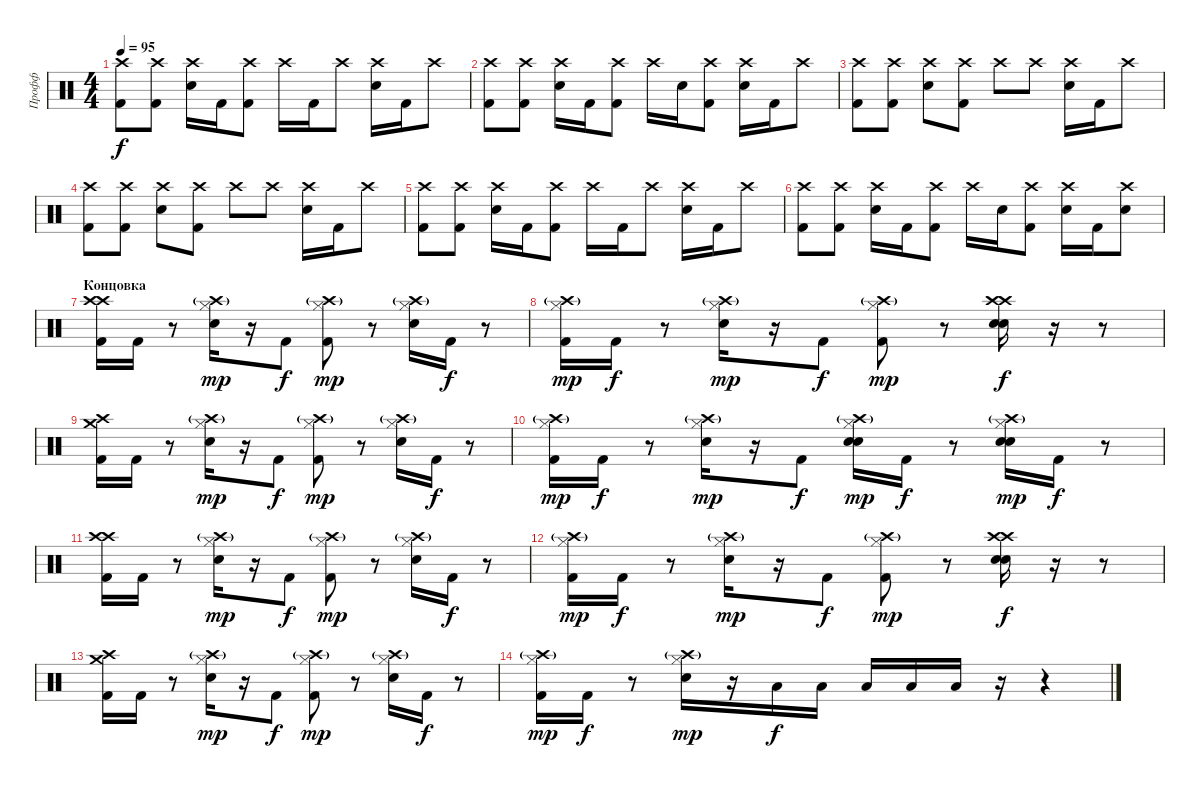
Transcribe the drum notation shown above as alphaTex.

\track ("Профф" "Профф") {instrument percussion}
\staff {score}
\articulation defaults
\ts (4 4)
\tempo 95
\clef neutral
\ks c
("Crash high (hit)" "Kick (hit) 2").8{dy f} ("Crash high (hit)" "Kick (hit) 2").8 ("Crash high (hit)" "Snare (hit) 2").16 "Kick (hit) 2".16 ("Crash high (hit)" "Kick (hit) 2").8 "Crash high (hit)".16 "Kick (hit) 2".16 "Crash high (hit)".8 ("Crash high (hit)" "Snare (hit) 2").16 "Kick (hit) 2".16 "Crash high (hit)".8 |
("Crash high (hit)" "Kick (hit) 2").8 ("Crash high (hit)" "Kick (hit) 2").8 ("Crash high (hit)" "Snare (hit) 2").16 "Kick (hit) 2".16 ("Crash high (hit)" "Kick (hit) 2").8 "Crash high (hit)".16 "Snare (hit) 2".16 ("Crash high (hit)" "Kick (hit) 2").8 ("Crash high (hit)" "Snare (hit) 2").16 "Kick (hit) 2".16 "Crash high (hit)".8 |
("Crash high (hit)" "Kick (hit) 2").8 ("Crash high (hit)" "Kick (hit) 2").8 ("Crash high (hit)" "Snare (hit) 2").8 ("Crash high (hit)" "Kick (hit) 2").8 "Crash high (hit)".8 "Crash high (hit)".8 ("Crash high (hit)" "Snare (hit) 2").16 "Kick (hit) 2".16 "Crash high (hit)".8 |
("Crash high (hit)" "Kick (hit) 2").8 ("Crash high (hit)" "Kick (hit) 2").8 ("Crash high (hit)" "Snare (hit) 2").8 ("Crash high (hit)" "Kick (hit) 2").8 "Crash high (hit)".8 "Crash high (hit)".8 ("Crash high (hit)" "Snare (hit) 2").16 "Kick (hit) 2".16 "Crash high (hit)".8 |
("Crash high (hit)" "Kick (hit) 2").8 ("Crash high (hit)" "Kick (hit) 2").8 ("Crash high (hit)" "Snare (hit) 2").16 "Kick (hit) 2".16 ("Crash high (hit)" "Kick (hit) 2").8 "Crash high (hit)".16 "Kick (hit) 2".16 "Crash high (hit)".8 ("Crash high (hit)" "Snare (hit) 2").16 "Kick (hit) 2".16 "Crash high (hit)".8 |
("Crash high (hit)" "Kick (hit) 2").8 ("Crash high (hit)" "Kick (hit) 2").8 ("Crash high (hit)" "Snare (hit) 2").16 "Kick (hit) 2".16 ("Crash high (hit)" "Kick (hit) 2").8 "Crash high (hit)".16 "Snare (hit) 2".16 ("Crash high (hit)" "Kick (hit) 2").8 ("Crash high (hit)" "Snare (hit) 2").16 "Kick (hit) 2".16 ("Crash high (hit)" "Snare (hit) 2").8 |
\section ("" "Концовка")
("Crash high (hit)" "Crash high (hit)" "Kick (hit) 2").16 "Kick (hit) 2".16 r.8 ("Crash high (hit)"{g} "Hi-Hat (closed)" "Snare (hit) 2").16{dy mp} r.16 "Kick (hit) 2".8{dy f} ("Crash high (hit)"{g} "Hi-Hat (closed)" "Kick (hit) 2").8{dy mp} r.8 ("Crash high (hit)"{g} "Hi-Hat (closed)" "Snare (hit) 2").16 "Kick (hit) 2".16{dy f} r.8 |
("Crash high (hit)"{g} "Hi-Hat (closed)" "Kick (hit) 2").16{dy mp} "Kick (hit) 2".16{dy f} r.8 ("Crash high (hit)"{g} "Hi-Hat (closed)" "Snare (hit) 2").16{dy mp} r.16 "Kick (hit) 2".8{dy f} ("Crash high (hit)"{g} "Hi-Hat (closed)" "Kick (hit) 2").8{dy mp} r.8 ("Crash high (hit)" "Crash high (hit)" "Snare (hit) 2" "Snare (hit) 2").16{dy f} r.16 r.8 |
("Crash medium (hit)" "Crash high (hit)" "Kick (hit) 2").16 "Kick (hit) 2".16 r.8 ("Crash high (hit)"{g} "Hi-Hat (closed)" "Snare (hit) 2").16{dy mp} r.16 "Kick (hit) 2".8{dy f} ("Crash high (hit)"{g} "Hi-Hat (closed)" "Kick (hit) 2").8{dy mp} r.8 ("Crash high (hit)"{g} "Hi-Hat (closed)" "Snare (hit) 2").16 "Kick (hit) 2".16{dy f} r.8 |
("Crash high (hit)"{g} "Hi-Hat (closed)" "Kick (hit) 2").16{dy mp} "Kick (hit) 2".16{dy f} r.8 ("Crash high (hit)"{g} "Hi-Hat (closed)" "Snare (hit) 2").16{dy mp} r.16 "Kick (hit) 2".8{dy f} ("Crash high (hit)"{g} "Hi-Hat (closed)" "Snare (hit) 2" "Snare (hit) 2").16{dy mp} "Kick (hit) 2".16{dy f} r.8 ("Crash high (hit)"{g} "Hi-Hat (closed)" "Snare (hit) 2" "Snare (hit) 2").16{dy mp} "Kick (hit) 2".16{dy f} r.8 |
("Crash high (hit)" "Crash high (hit)" "Kick (hit) 2").16 "Kick (hit) 2".16 r.8 ("Crash high (hit)"{g} "Hi-Hat (closed)" "Snare (hit) 2").16{dy mp} r.16 "Kick (hit) 2".8{dy f} ("Crash high (hit)"{g} "Hi-Hat (closed)" "Kick (hit) 2").8{dy mp} r.8 ("Crash high (hit)"{g} "Hi-Hat (closed)" "Snare (hit) 2").16 "Kick (hit) 2".16{dy f} r.8 |
("Crash high (hit)"{g} "Hi-Hat (closed)" "Kick (hit) 2").16{dy mp} "Kick (hit) 2".16{dy f} r.8 ("Crash high (hit)"{g} "Hi-Hat (closed)" "Snare (hit) 2").16{dy mp} r.16 "Kick (hit) 2".8{dy f} ("Crash high (hit)"{g} "Hi-Hat (closed)" "Kick (hit) 2").8{dy mp} r.8 ("Crash high (hit)" "Crash high (hit)" "Snare (hit) 2" "Snare (hit) 2").16{dy f} r.16 r.8 |
("Crash medium (hit)" "Crash high (hit)" "Kick (hit) 2").16 "Kick (hit) 2".16 r.8 ("Crash high (hit)"{g} "Hi-Hat (closed)" "Snare (hit) 2").16{dy mp} r.16 "Kick (hit) 2".8{dy f} ("Crash high (hit)"{g} "Hi-Hat (closed)" "Kick (hit) 2").8{dy mp} r.8 ("Crash high (hit)"{g} "Hi-Hat (closed)" "Snare (hit) 2").16 "Kick (hit) 2".16{dy f} r.8 |
("Crash high (hit)"{g} "Hi-Hat (closed)" "Kick (hit) 2").16{dy mp} "Kick (hit) 2".16{dy f} r.8 ("Crash high (hit)"{g} "Hi-Hat (closed)" "Snare (hit) 2").16{dy mp} r.16 "Low Tom (hit)".16{dy f} "Low Tom (hit)".16 "Low Tom (hit)".16 "Low Floor Tom (hit)".16 "Low Tom (hit)".16 r.16 r.4
